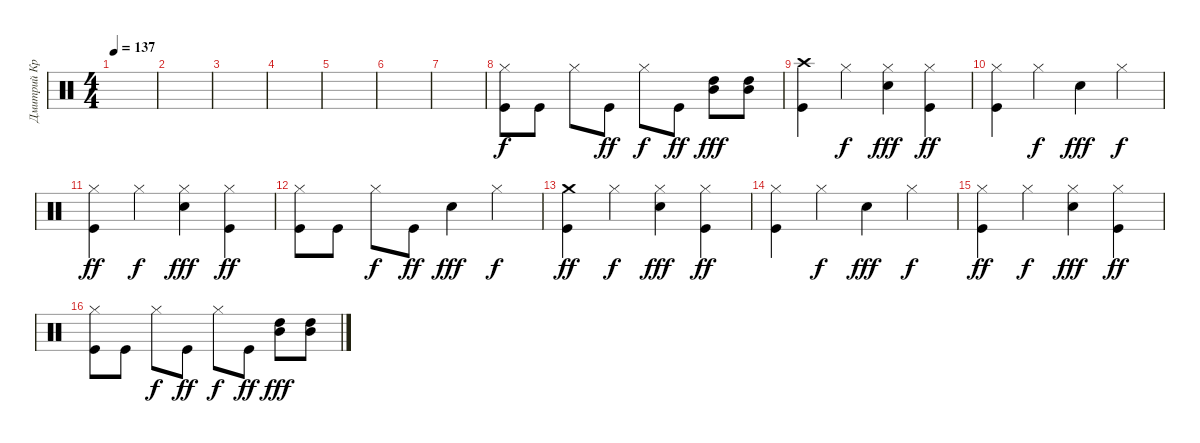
\track ("Дмитрий Кревенков" "Дмитрий Кр") {instrument percussion}
\staff {score}
\articulation defaults
\ts (4 4)
\tempo 137
\clef neutral
\ks c
|
|
|
|
|
|
|
("Kick (hit)" "Hi-Hat (closed)").8 "Kick (hit)".8 "Hi-Hat (closed)".8{dy f} "Kick (hit)".8{dy ff} "Hi-Hat (closed)".8{dy f} "Kick (hit)".8{dy ff} ("Mid Tom (hit)" "High Tom (hit)").8{dy fff} ("Mid Tom (hit)" "High Tom (hit)").8 |
("Kick (hit)" "Crash high (hit)").4 "Hi-Hat (closed)".4{dy f} ("Electric Snare (hit)" "Hi-Hat (closed)").4{dy fff} ("Kick (hit)" "Hi-Hat (closed)").4{dy ff} |
("Kick (hit)" "Hi-Hat (closed)").4 "Hi-Hat (closed)".4{dy f} "Electric Snare (hit)".4{dy fff} "Hi-Hat (closed)".4{dy f} |
("Hi-Hat (closed)" "Kick (hit)").4{dy ff} "Hi-Hat (closed)".4{dy f} ("Electric Snare (hit)" "Hi-Hat (closed)").4{dy fff} ("Kick (hit)" "Hi-Hat (closed)").4{dy ff} |
("Kick (hit)" "Hi-Hat (closed)").8 "Kick (hit)".8 "Hi-Hat (closed)".8{dy f} "Kick (hit)".8{dy ff} "Electric Snare (hit)".4{dy fff} "Hi-Hat (closed)".4{dy f} |
("Crash medium (hit)" "Kick (hit)").4{dy ff} "Hi-Hat (closed)".4{dy f} ("Electric Snare (hit)" "Hi-Hat (closed)").4{dy fff} ("Kick (hit)" "Hi-Hat (closed)").4{dy ff} |
("Kick (hit)" "Hi-Hat (closed)").4 "Hi-Hat (closed)".4{dy f} "Electric Snare (hit)".4{dy fff} "Hi-Hat (closed)".4{dy f} |
("Kick (hit)" "Hi-Hat (closed)").4{dy ff} "Hi-Hat (closed)".4{dy f} ("Electric Snare (hit)" "Hi-Hat (closed)").4{dy fff} ("Kick (hit)" "Hi-Hat (closed)").4{dy ff} |
("Kick (hit)" "Hi-Hat (closed)").8 "Kick (hit)".8 "Hi-Hat (closed)".8{dy f} "Kick (hit)".8{dy ff} "Hi-Hat (closed)".8{dy f} "Kick (hit)".8{dy ff} ("High Tom (hit)" "Mid Tom (hit)").8{dy fff} ("Mid Tom (hit)" "High Tom (hit)").8
